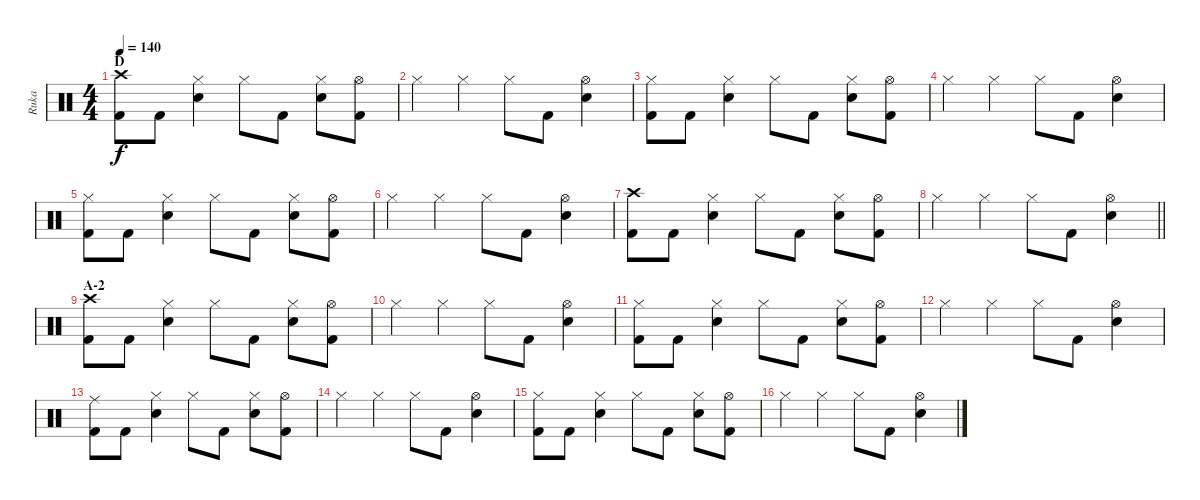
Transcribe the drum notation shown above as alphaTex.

\track ("Ruka" "Ruka") {instrument percussion}
\staff {score}
\articulation defaults
\ts (4 4)
\section ("" "D")
\tempo 140
\clef neutral
\ks c
("Crash high (hit)" "Kick (hit) 2").8{dy f} "Kick (hit) 2".8 ("Hi-Hat (closed)" "Snare (hit) 2").4 "Hi-Hat (closed)".8 "Kick (hit) 2".8 ("Hi-Hat (closed)" "Snare (hit) 2").8 ("Hi-Hat (open)" "Kick (hit) 2").8 |
"Hi-Hat (closed)".4 "Hi-Hat (closed)".4 "Hi-Hat (closed)".8 "Kick (hit) 2".8 ("Hi-Hat (open)" "Snare (hit) 2").4 |
("Hi-Hat (closed)" "Kick (hit) 2").8 "Kick (hit) 2".8 ("Hi-Hat (closed)" "Snare (hit) 2").4 "Hi-Hat (closed)".8 "Kick (hit) 2".8 ("Hi-Hat (closed)" "Snare (hit) 2").8 ("Hi-Hat (open)" "Kick (hit) 2").8 |
"Hi-Hat (closed)".4 "Hi-Hat (closed)".4 "Hi-Hat (closed)".8 "Kick (hit) 2".8 ("Hi-Hat (open)" "Snare (hit) 2").4 |
("Hi-Hat (closed)" "Kick (hit) 2").8 "Kick (hit) 2".8 ("Hi-Hat (closed)" "Snare (hit) 2").4 "Hi-Hat (closed)".8 "Kick (hit) 2".8 ("Hi-Hat (closed)" "Snare (hit) 2").8 ("Hi-Hat (open)" "Kick (hit) 2").8 |
"Hi-Hat (closed)".4 "Hi-Hat (closed)".4 "Hi-Hat (closed)".8 "Kick (hit) 2".8 ("Hi-Hat (open)" "Snare (hit) 2").4 |
("Crash high (hit)" "Kick (hit) 2").8 "Kick (hit) 2".8 ("Hi-Hat (closed)" "Snare (hit) 2").4 "Hi-Hat (closed)".8 "Kick (hit) 2".8 ("Hi-Hat (closed)" "Snare (hit) 2").8 ("Hi-Hat (open)" "Kick (hit) 2").8 |
\barLineRight lightlight "Hi-Hat (closed)".4 "Hi-Hat (closed)".4 "Hi-Hat (closed)".8 "Kick (hit) 2".8
("Hi-Hat (open)" "Snare (hit) 2").4 |
\section ("" "A-2")
("Crash high (hit)" "Kick (hit) 2").8 "Kick (hit) 2".8 ("Hi-Hat (closed)" "Snare (hit) 2").4 "Hi-Hat (closed)".8 "Kick (hit) 2".8 ("Hi-Hat (closed)" "Snare (hit) 2").8 ("Hi-Hat (open)" "Kick (hit) 2").8 |
"Hi-Hat (closed)".4 "Hi-Hat (closed)".4 "Hi-Hat (closed)".8 "Kick (hit) 2".8 ("Hi-Hat (open)" "Snare (hit) 2").4 |
("Hi-Hat (closed)" "Kick (hit) 2").8 "Kick (hit) 2".8 ("Hi-Hat (closed)" "Snare (hit) 2").4 "Hi-Hat (closed)".8 "Kick (hit) 2".8 ("Hi-Hat (closed)" "Snare (hit) 2").8 ("Hi-Hat (open)" "Kick (hit) 2").8 |
"Hi-Hat (closed)".4 "Hi-Hat (closed)".4 "Hi-Hat (closed)".8 "Kick (hit) 2".8 ("Hi-Hat (open)" "Snare (hit) 2").4 |
("Ride (middle)" "Kick (hit) 2").8 "Kick (hit) 2".8 ("Hi-Hat (closed)" "Snare (hit) 2").4 "Hi-Hat (closed)".8 "Kick (hit) 2".8 ("Hi-Hat (closed)" "Snare (hit) 2").8 ("Hi-Hat (open)" "Kick (hit) 2").8 |
"Hi-Hat (closed)".4 "Hi-Hat (closed)".4 "Hi-Hat (closed)".8 "Kick (hit) 2".8 ("Hi-Hat (open)" "Snare (hit) 2").4 |
("Hi-Hat (closed)" "Kick (hit) 2").8 "Kick (hit) 2".8 ("Hi-Hat (closed)" "Snare (hit) 2").4 "Hi-Hat (closed)".8 "Kick (hit) 2".8 ("Hi-Hat (closed)" "Snare (hit) 2").8 ("Hi-Hat (open)" "Kick (hit) 2").8 |
"Hi-Hat (closed)".4 "Hi-Hat (closed)".4 "Hi-Hat (closed)".8 "Kick (hit) 2".8 ("Hi-Hat (open)" "Snare (hit) 2").4
